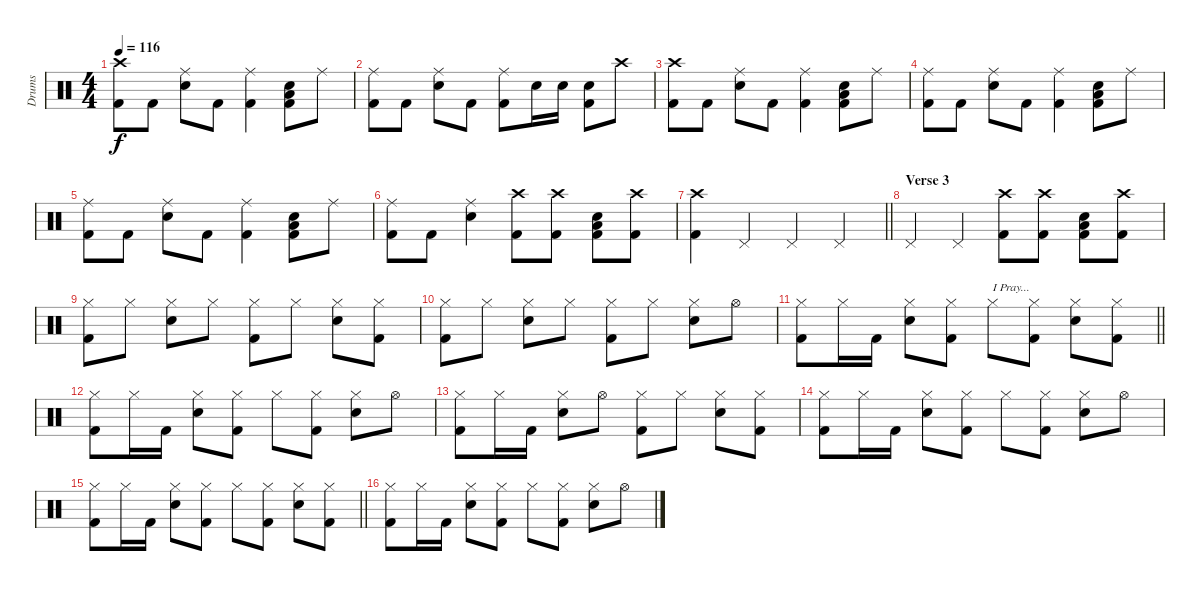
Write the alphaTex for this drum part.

\track ("Drums" "Drums") {instrument percussion}
\staff {score}
\articulation defaults
\ts (4 4)
\tempo 116
\clef neutral
\ks c
("Crash high (hit)" "Kick (hit) 2").8{dy f} "Kick (hit) 2".8 ("Ride (middle)" "Snare (hit) 2").8 "Kick (hit) 2".8 ("Ride (middle)" "Kick (hit) 2").4 ("Snare (hit) 2" "Low Floor Tom (hit)" "Kick (hit) 2").8 "Ride (middle)".8 |
("Ride (middle)" "Kick (hit) 2").8 "Kick (hit) 2".8 ("Ride (middle)" "Snare (hit) 2").8 "Kick (hit) 2".8 ("Ride (middle)" "Kick (hit) 2").8 "Snare (hit) 2".16 "Snare (hit) 2".16 ("Snare (hit) 2" "Kick (hit) 2").8 "Crash high (hit)".8 |
("Crash high (hit)" "Kick (hit) 2").8 "Kick (hit) 2".8 ("Ride (middle)" "Snare (hit) 2").8 "Kick (hit) 2".8 ("Ride (middle)" "Kick (hit) 2").4 ("Snare (hit) 2" "Low Floor Tom (hit)" "Kick (hit) 2").8 "Ride (middle)".8 |
("Ride (middle)" "Kick (hit) 2").8 "Kick (hit) 2".8 ("Ride (middle)" "Snare (hit) 2").8 "Kick (hit) 2".8 ("Ride (middle)" "Kick (hit) 2").4 ("Snare (hit) 2" "Low Floor Tom (hit)" "Kick (hit) 2").8 "Ride (middle)".8 |
("Ride (middle)" "Kick (hit) 2").8 "Kick (hit) 2".8 ("Ride (middle)" "Snare (hit) 2").8 "Kick (hit) 2".8 ("Ride (middle)" "Kick (hit) 2").4 ("Snare (hit) 2" "Low Floor Tom (hit)" "Kick (hit) 2").8 "Ride (middle)".8 |
("Ride (middle)" "Kick (hit) 2").8 "Kick (hit) 2".8 ("Ride (middle)" "Snare (hit) 2").4 ("Crash high (hit)" "Kick (hit) 2").8 ("Crash high (hit)" "Kick (hit) 2").8 ("Snare (hit) 2" "Low Floor Tom (hit)" "Kick (hit) 2").8 ("Crash high (hit)" "Kick (hit) 2").8 |
\barLineRight lightlight
("Crash high (hit)" "Kick (hit) 2").4 "Pedal Hi-Hat (hit)".4 "Pedal Hi-Hat (hit)".4 "Pedal Hi-Hat (hit)".4 |
\section ("" "Verse 3")
"Pedal Hi-Hat (hit)".4 "Pedal Hi-Hat (hit)".4 ("Crash high (hit)" "Kick (hit) 2").8 ("Crash high (hit)" "Kick (hit) 2").8 ("Snare (hit) 2" "Low Floor Tom (hit)" "Kick (hit) 2").8 ("Crash high (hit)" "Kick (hit) 2").8 |
("Hi-Hat (closed)" "Kick (hit) 2").8 "Hi-Hat (closed)".8 ("Hi-Hat (closed)" "Snare (hit) 2").8 "Hi-Hat (closed)".8 ("Hi-Hat (closed)" "Kick (hit) 2").8 "Hi-Hat (closed)".8 ("Hi-Hat (closed)" "Snare (hit) 2").8 ("Hi-Hat (closed)" "Kick (hit) 2").8 |
("Hi-Hat (closed)" "Kick (hit) 2").8 "Hi-Hat (closed)".8 ("Hi-Hat (closed)" "Snare (hit) 2").8 "Hi-Hat (closed)".8 ("Hi-Hat (closed)" "Kick (hit) 2").8 "Hi-Hat (closed)".8 ("Hi-Hat (closed)" "Snare (hit) 2").8 "Hi-Hat (open)".8 |
\barLineRight lightlight
("Hi-Hat (closed)" "Kick (hit) 2").8 "Hi-Hat (closed)".16 "Kick (hit) 2".16 ("Hi-Hat (closed)" "Snare (hit) 2").8 ("Hi-Hat (closed)" "Kick (hit) 2").8 "Hi-Hat (closed)".8{txt "I Pray..."} ("Hi-Hat (closed)" "Kick (hit) 2").8 ("Hi-Hat (closed)" "Snare (hit) 2").8 ("Hi-Hat (closed)" "Kick (hit) 2").8 |
("Hi-Hat (closed)" "Kick (hit) 2").8 "Hi-Hat (closed)".16 "Kick (hit) 2".16 ("Hi-Hat (closed)" "Snare (hit) 2").8 ("Hi-Hat (closed)" "Kick (hit) 2").8 "Hi-Hat (closed)".8 ("Hi-Hat (closed)" "Kick (hit) 2").8 ("Hi-Hat (closed)" "Snare (hit) 2").8 "Hi-Hat (open)".8 |
("Hi-Hat (closed)" "Kick (hit) 2").8 "Hi-Hat (closed)".16 "Kick (hit) 2".16 ("Hi-Hat (closed)" "Snare (hit) 2").8 "Hi-Hat (open)".8 ("Hi-Hat (closed)" "Kick (hit) 2").8 "Hi-Hat (closed)".8 ("Hi-Hat (closed)" "Snare (hit) 2").8 ("Hi-Hat (closed)" "Kick (hit) 2").8 |
("Hi-Hat (closed)" "Kick (hit) 2").8 "Hi-Hat (closed)".16 "Kick (hit) 2".16 ("Hi-Hat (closed)" "Snare (hit) 2").8 ("Hi-Hat (closed)" "Kick (hit) 2").8 "Hi-Hat (closed)".8 ("Hi-Hat (closed)" "Kick (hit) 2").8 ("Hi-Hat (closed)" "Snare (hit) 2").8 "Hi-Hat (open)".8 |
\barLineRight lightlight
("Hi-Hat (closed)" "Kick (hit) 2").8 "Hi-Hat (closed)".16 "Kick (hit) 2".16 ("Hi-Hat (closed)" "Snare (hit) 2").8 ("Hi-Hat (closed)" "Kick (hit) 2").8 "Hi-Hat (closed)".8 ("Hi-Hat (closed)" "Kick (hit) 2").8 ("Hi-Hat (closed)" "Snare (hit) 2").8 ("Hi-Hat (closed)" "Kick (hit) 2").8 |
("Hi-Hat (closed)" "Kick (hit) 2").8 "Hi-Hat (closed)".16 "Kick (hit) 2".16 ("Hi-Hat (closed)" "Snare (hit) 2").8 ("Hi-Hat (closed)" "Kick (hit) 2").8 "Hi-Hat (closed)".8 ("Hi-Hat (closed)" "Kick (hit) 2").8 ("Hi-Hat (closed)" "Snare (hit) 2").8 "Hi-Hat (open)".8
